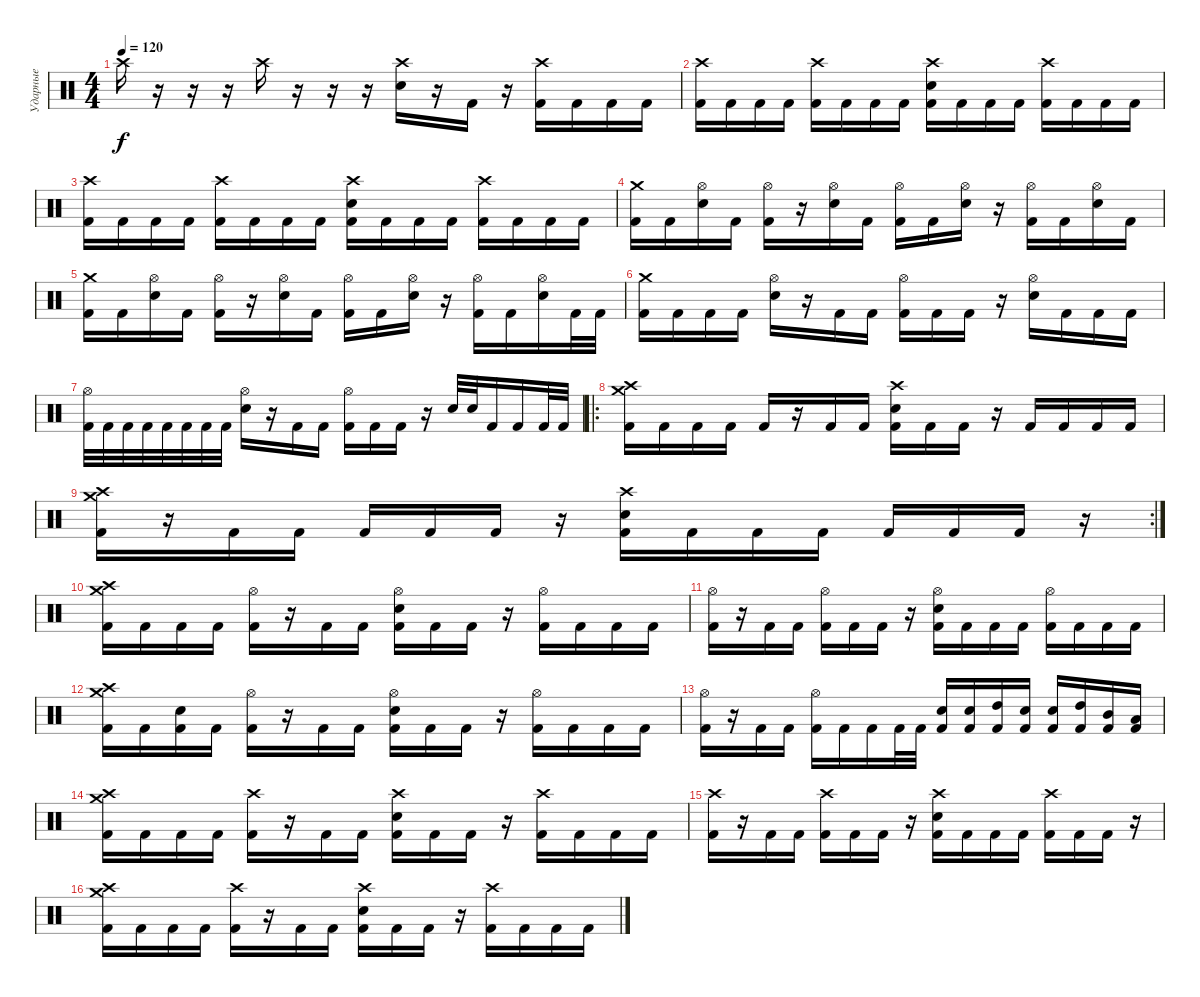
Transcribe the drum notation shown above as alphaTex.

\track ("Ударные" "Ударные") {instrument percussion}
\staff {score}
\articulation defaults
\ts (4 4)
\tempo 120
\clef neutral
\ks c "Crash high (hit)".16{dy f}
r.16 r.16 r.16 "Crash high (hit)".16 r.16 r.16 r.16 ("Crash high (hit)" "Electric Snare (hit)").16 r.16 "Kick (hit) 2".16 r.16 ("Crash high (hit)" "Kick (hit) 2").16 "Kick (hit) 2".16 "Kick (hit) 2".16 "Kick (hit) 2".16 |
("Crash high (hit)" "Kick (hit) 2").16 "Kick (hit) 2".16 "Kick (hit) 2".16 "Kick (hit) 2".16 ("Crash high (hit)" "Kick (hit) 2").16 "Kick (hit) 2".16 "Kick (hit) 2".16 "Kick (hit) 2".16 ("Crash high (hit)" "Electric Snare (hit)" "Kick (hit) 2").16 "Kick (hit) 2".16 "Kick (hit) 2".16 "Kick (hit) 2".16 ("Crash high (hit)" "Kick (hit) 2").16 "Kick (hit) 2".16 "Kick (hit) 2".16 "Kick (hit) 2".16 |
("Crash high (hit)" "Kick (hit) 2").16 "Kick (hit) 2".16 "Kick (hit) 2".16 "Kick (hit) 2".16 ("Crash high (hit)" "Kick (hit) 2").16 "Kick (hit) 2".16 "Kick (hit) 2".16 "Kick (hit) 2".16 ("Crash high (hit)" "Electric Snare (hit)" "Kick (hit) 2").16 "Kick (hit) 2".16 "Kick (hit) 2".16 "Kick (hit) 2".16 ("Crash high (hit)" "Kick (hit) 2").16 "Kick (hit) 2".16 "Kick (hit) 2".16 "Kick (hit) 2".16 |
("Crash medium (hit)" "Kick (hit) 2").16 "Kick (hit) 2".16 ("Hi-Hat (open)" "Electric Snare (hit)").16 "Kick (hit) 2".16 ("Hi-Hat (open)" "Kick (hit) 2").16 r.16 ("Hi-Hat (open)" "Electric Snare (hit)").16 "Kick (hit) 2".16 ("Hi-Hat (open)" "Kick (hit) 2").16 "Kick (hit) 2".16 ("Hi-Hat (open)" "Electric Snare (hit)").16 r.16 ("Hi-Hat (open)" "Kick (hit) 2").16 "Kick (hit) 2".16 ("Hi-Hat (open)" "Electric Snare (hit)").16 "Kick (hit) 2".16 |
("Crash medium (hit)" "Kick (hit) 2").16 "Kick (hit) 2".16 ("Hi-Hat (open)" "Electric Snare (hit)").16 "Kick (hit) 2".16 ("Hi-Hat (open)" "Kick (hit) 2").16 r.16 ("Hi-Hat (open)" "Electric Snare (hit)").16 "Kick (hit) 2".16 ("Hi-Hat (open)" "Kick (hit) 2").16 "Kick (hit) 2".16 ("Hi-Hat (open)" "Electric Snare (hit)").16 r.16 ("Hi-Hat (open)" "Kick (hit) 2").16 "Kick (hit) 2".16 ("Hi-Hat (open)" "Electric Snare (hit)").16 "Kick (hit) 2".32 "Kick (hit) 2".32 |
("Crash medium (hit)" "Kick (hit) 2").16 "Kick (hit) 2".16 "Kick (hit) 2".16 "Kick (hit) 2".16 ("Hi-Hat (open)" "Electric Snare (hit)").16 r.16 "Kick (hit) 2".16 "Kick (hit) 2".16 ("Hi-Hat (open)" "Kick (hit) 2").16 "Kick (hit) 2".16 "Kick (hit) 2".16 r.16 ("Hi-Hat (open)" "Electric Snare (hit)").16 "Kick (hit) 2".16 "Kick (hit) 2".16 "Kick (hit) 2".16 |
("Hi-Hat (open)" "Kick (hit) 2").32 "Kick (hit) 2".32 "Kick (hit) 2".32 "Kick (hit) 2".32 "Kick (hit) 2".32 "Kick (hit) 2".32 "Kick (hit) 2".32 "Kick (hit) 2".32 ("Hi-Hat (open)" "Electric Snare (hit)").16 r.16 "Kick (hit) 2".16 "Kick (hit) 2".16 ("Hi-Hat (open)" "Kick (hit) 2").16 "Kick (hit) 2".16 "Kick (hit) 2".16 r.16 "Electric Snare (hit)".32 "Electric Snare (hit)".32 "Kick (hit) 2".16 "Kick (hit) 2".16 "Kick (hit) 2".32 "Kick (hit) 2".32 |
\ro
("Crash medium (hit)" "Crash high (hit)" "Kick (hit) 2").16 "Kick (hit) 2".16 "Kick (hit) 2".16 "Kick (hit) 2".16 "Kick (hit) 2".16 r.16 "Kick (hit) 2".16 "Kick (hit) 2".16 ("Crash high (hit)" "Electric Snare (hit)" "Kick (hit) 2").16 "Kick (hit) 2".16 "Kick (hit) 2".16 r.16 "Kick (hit) 2".16 "Kick (hit) 2".16 "Kick (hit) 2".16 "Kick (hit) 2".16 |
\rc 2
("Crash medium (hit)" "Crash high (hit)" "Kick (hit) 2").16 r.16 "Kick (hit) 2".16 "Kick (hit) 2".16 "Kick (hit) 2".16 "Kick (hit) 2".16 "Kick (hit) 2".16 r.16 ("Crash high (hit)" "Electric Snare (hit)" "Kick (hit) 2").16 "Kick (hit) 2".16 "Kick (hit) 2".16 "Kick (hit) 2".16 "Kick (hit) 2".16 "Kick (hit) 2".16 "Kick (hit) 2".16 r.16 |
("Crash medium (hit)" "Crash high (hit)" "Kick (hit) 2").16 "Kick (hit) 2".16 "Kick (hit) 2".16 "Kick (hit) 2".16 ("Hi-Hat (open)" "Kick (hit) 2").16 r.16 "Kick (hit) 2".16 "Kick (hit) 2".16 ("Hi-Hat (open)" "Electric Snare (hit)" "Kick (hit) 2").16 "Kick (hit) 2".16 "Kick (hit) 2".16 r.16 ("Hi-Hat (open)" "Kick (hit) 2").16 "Kick (hit) 2".16 "Kick (hit) 2".16 "Kick (hit) 2".16 |
("Hi-Hat (open)" "Kick (hit) 2").16 r.16 "Kick (hit) 2".16 "Kick (hit) 2".16 ("Hi-Hat (open)" "Kick (hit) 2").16 "Kick (hit) 2".16 "Kick (hit) 2".16 r.16 ("Hi-Hat (open)" "Electric Snare (hit)" "Kick (hit) 2").16 "Kick (hit) 2".16 "Kick (hit) 2".16 "Kick (hit) 2".16 ("Hi-Hat (open)" "Kick (hit) 2").16 "Kick (hit) 2".16 "Kick (hit) 2".16 "Kick (hit) 2".16 |
("Crash medium (hit)" "Crash high (hit)" "Kick (hit) 2").16 "Kick (hit) 2".16 ("Electric Snare (hit)" "Kick (hit) 2").16 "Kick (hit) 2".16 ("Hi-Hat (open)" "Kick (hit) 2").16 r.16 "Kick (hit) 2".16 "Kick (hit) 2".16 ("Hi-Hat (open)" "Electric Snare (hit)" "Kick (hit) 2").16 "Kick (hit) 2".16 "Kick (hit) 2".16 r.16 ("Hi-Hat (open)" "Kick (hit) 2").16 "Kick (hit) 2".16 "Kick (hit) 2".16 "Kick (hit) 2".16 |
("Hi-Hat (open)" "Kick (hit) 2").16 r.16 "Kick (hit) 2".16 "Kick (hit) 2".16 ("Hi-Hat (open)" "Kick (hit) 2").16 "Kick (hit) 2".16 "Kick (hit) 2".16 "Kick (hit) 2".32 "Kick (hit) 2".32 ("Electric Snare (hit)" "Kick (hit) 2").16 ("Electric Snare (hit)" "Kick (hit) 2").16 ("High Tom (hit)" "Kick (hit) 2").16 ("Electric Snare (hit)" "Kick (hit) 2").16 ("Electric Snare (hit)" "Kick (hit) 2").16 ("High Tom (hit)" "Kick (hit) 2").16 ("Mid Tom (hit)" "Kick (hit) 2").16 ("Low Tom (hit)" "Kick (hit) 2").16 |
("Crash medium (hit)" "Crash high (hit)" "Kick (hit) 2").16 "Kick (hit) 2".16 "Kick (hit) 2".16 "Kick (hit) 2".16 ("Crash high (hit)" "Kick (hit) 2").16 r.16 "Kick (hit) 2".16 "Kick (hit) 2".16 ("Crash high (hit)" "Electric Snare (hit)" "Kick (hit) 2").16 "Kick (hit) 2".16 "Kick (hit) 2".16 r.16 ("Crash high (hit)" "Kick (hit) 2").16 "Kick (hit) 2".16 "Kick (hit) 2".16 "Kick (hit) 2".16 |
("Crash high (hit)" "Kick (hit) 2").16 r.16 "Kick (hit) 2".16 "Kick (hit) 2".16 ("Crash high (hit)" "Kick (hit) 2").16 "Kick (hit) 2".16 "Kick (hit) 2".16 r.16 ("Crash high (hit)" "Electric Snare (hit)" "Kick (hit) 2").16 "Kick (hit) 2".16 "Kick (hit) 2".16 "Kick (hit) 2".16 ("Crash high (hit)" "Kick (hit) 2").16 "Kick (hit) 2".16 "Kick (hit) 2".16 r.16 |
("Crash medium (hit)" "Crash high (hit)" "Kick (hit) 2").16 "Kick (hit) 2".16 "Kick (hit) 2".16 "Kick (hit) 2".16 ("Crash high (hit)" "Kick (hit) 2").16 r.16 "Kick (hit) 2".16 "Kick (hit) 2".16 ("Crash high (hit)" "Electric Snare (hit)" "Kick (hit) 2").16 "Kick (hit) 2".16 "Kick (hit) 2".16 r.16 ("Crash high (hit)" "Kick (hit) 2").16 "Kick (hit) 2".16 "Kick (hit) 2".16 "Kick (hit) 2".16
